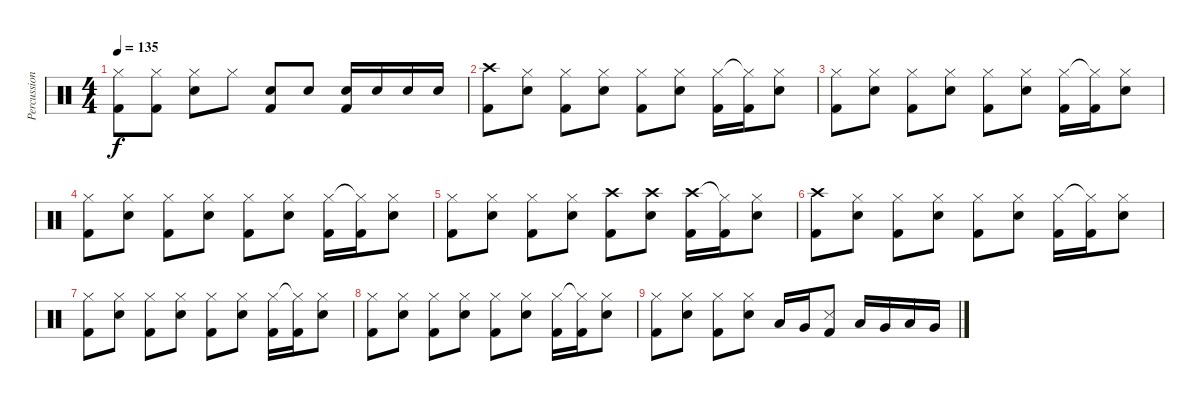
\track ("Percussion" "Percussion") {instrument percussion}
\staff {score}
\articulation defaults
\ts (4 4)
\tempo 135
\clef neutral
\ks c
("Hi-Hat (closed)" "Kick (hit) 2").8{dy f} ("Hi-Hat (closed)" "Kick (hit) 2").8 ("Hi-Hat (closed)" "Snare (hit) 2").8 "Hi-Hat (closed)".8 ("Snare (hit) 2" "Kick (hit) 2").8 "Snare (hit) 2".8 ("Snare (hit) 2" "Kick (hit) 2").16 "Snare (hit) 2".16 "Snare (hit) 2".16 "Snare (hit) 2".16 |
("Crash high (hit)" "Kick (hit) 2").8 ("Hi-Hat (closed)" "Snare (hit) 2").8 ("Hi-Hat (closed)" "Kick (hit) 2").8 ("Hi-Hat (closed)" "Snare (hit) 2").8 ("Hi-Hat (closed)" "Kick (hit) 2").8 ("Hi-Hat (closed)" "Snare (hit) 2").8 ("Hi-Hat (closed)" "Kick (hit) 2").16 ("Hi-Hat (closed)"{t} "Kick (hit) 2").16 ("Hi-Hat (closed)" "Snare (hit) 2").8 |
("Hi-Hat (closed)" "Kick (hit) 2").8 ("Hi-Hat (closed)" "Snare (hit) 2").8 ("Hi-Hat (closed)" "Kick (hit) 2").8 ("Hi-Hat (closed)" "Snare (hit) 2").8 ("Hi-Hat (closed)" "Kick (hit) 2").8 ("Hi-Hat (closed)" "Snare (hit) 2").8 ("Hi-Hat (closed)" "Kick (hit) 2").16 ("Hi-Hat (closed)"{t} "Kick (hit) 2").16 ("Hi-Hat (closed)" "Snare (hit) 2").8 |
("Hi-Hat (closed)" "Kick (hit) 2").8 ("Hi-Hat (closed)" "Snare (hit) 2").8 ("Hi-Hat (closed)" "Kick (hit) 2").8 ("Hi-Hat (closed)" "Snare (hit) 2").8 ("Hi-Hat (closed)" "Kick (hit) 2").8 ("Hi-Hat (closed)" "Snare (hit) 2").8 ("Hi-Hat (closed)" "Kick (hit) 2").16 ("Hi-Hat (closed)"{t} "Kick (hit) 2").16 ("Hi-Hat (closed)" "Snare (hit) 2").8 |
("Hi-Hat (closed)" "Kick (hit) 2").8 ("Hi-Hat (closed)" "Snare (hit) 2").8 ("Hi-Hat (closed)" "Kick (hit) 2").8 ("Hi-Hat (closed)" "Snare (hit) 2").8 ("Crash high (hit)" "Kick (hit) 2").8 ("Crash high (hit)" "Snare (hit) 2").8 ("Crash high (hit)" "Kick (hit) 2").16 ("Hi-Hat (closed)"{t} "Kick (hit) 2").16 ("Hi-Hat (closed)" "Snare (hit) 2").8 |
("Crash high (hit)" "Kick (hit) 2").8 ("Hi-Hat (closed)" "Snare (hit) 2").8 ("Hi-Hat (closed)" "Kick (hit) 2").8 ("Hi-Hat (closed)" "Snare (hit) 2").8 ("Hi-Hat (closed)" "Kick (hit) 2").8 ("Hi-Hat (closed)" "Snare (hit) 2").8 ("Hi-Hat (closed)" "Kick (hit) 2").16 ("Hi-Hat (closed)"{t} "Kick (hit) 2").16 ("Hi-Hat (closed)" "Snare (hit) 2").8 |
("Hi-Hat (closed)" "Kick (hit) 2").8 ("Hi-Hat (closed)" "Snare (hit) 2").8 ("Hi-Hat (closed)" "Kick (hit) 2").8 ("Hi-Hat (closed)" "Snare (hit) 2").8 ("Hi-Hat (closed)" "Kick (hit) 2").8 ("Hi-Hat (closed)" "Snare (hit) 2").8 ("Hi-Hat (closed)" "Kick (hit) 2").16 ("Hi-Hat (closed)"{t} "Kick (hit) 2").16 ("Hi-Hat (closed)" "Snare (hit) 2").8 |
("Hi-Hat (closed)" "Kick (hit) 2").8 ("Hi-Hat (closed)" "Snare (hit) 2").8 ("Hi-Hat (closed)" "Kick (hit) 2").8 ("Hi-Hat (closed)" "Snare (hit) 2").8 ("Hi-Hat (closed)" "Kick (hit) 2").8 ("Hi-Hat (closed)" "Snare (hit) 2").8 ("Hi-Hat (closed)" "Kick (hit) 2").16 ("Hi-Hat (closed)"{t} "Kick (hit) 2").16 ("Hi-Hat (closed)" "Snare (hit) 2").8 |
("Hi-Hat (closed)" "Kick (hit) 2").8 ("Hi-Hat (closed)" "Snare (hit) 2").8 ("Hi-Hat (closed)" "Kick (hit) 2").8 ("Hi-Hat (closed)" "Snare (hit) 2").8 "Low Floor Tom (hit)".16 "Very Low Tom (hit)".16 ("Snare (side stick) 3" "Kick (hit) 2").8 "Low Floor Tom (hit)".16 "Very Low Tom (hit)".16 "Low Floor Tom (hit)".16 "Very Low Tom (hit)".16
